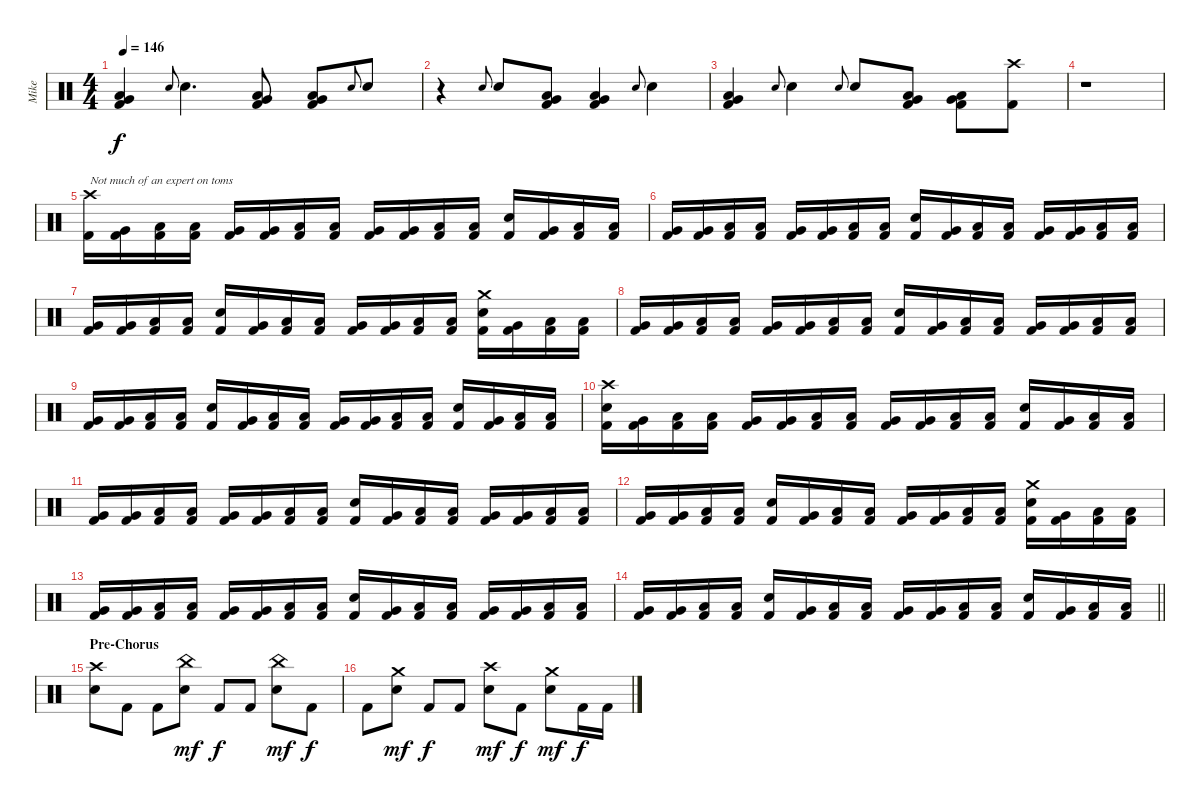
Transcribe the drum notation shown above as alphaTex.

\track ("Mike" "Mike") {instrument percussion}
\staff {score}
\articulation defaults
\ts (4 4)
\tempo 146
\clef neutral
\ks c
("Very Low Tom (hit)" "Low Floor Tom (hit)" "Kick (hit) 2").4{dy f} "Snare (hit) 2".8{gr onbeat} "Snare (hit) 2".4{d} ("Very Low Tom (hit)" "Low Floor Tom (hit)" "Kick (hit) 2").8 ("Very Low Tom (hit)" "Low Floor Tom (hit)" "Kick (hit) 2").8 "Snare (hit) 2".8{gr onbeat} "Snare (hit) 2".8 |
r.4 "Snare (hit) 2".8{gr onbeat} "Snare (hit) 2".8 ("Very Low Tom (hit)" "Low Floor Tom (hit)" "Kick (hit) 2").8 ("Very Low Tom (hit)" "Low Floor Tom (hit)" "Kick (hit) 2").4 "Snare (hit) 2".8{gr onbeat} "Snare (hit) 2".4 |
("Very Low Tom (hit)" "Low Floor Tom (hit)" "Kick (hit) 2").4 "Snare (hit) 2".8{gr onbeat} "Snare (hit) 2".4 "Snare (hit) 2".8{gr onbeat} "Snare (hit) 2".8 ("Very Low Tom (hit)" "Low Floor Tom (hit)" "Kick (hit) 2").8 ("Very Low Tom (hit)" "Low Floor Tom (hit)" "Kick (hit) 2").8 ("Crash high (hit)" "Kick (hit) 2").8 |
r.1 |
("Crash high (hit)" "Kick (hit) 2").16{txt "Not much of an expert on toms"} ("Very Low Tom (hit)" "Kick (hit) 2").16 ("Low Floor Tom (hit)" "Kick (hit) 2").16 ("Low Floor Tom (hit)" "Kick (hit) 2").16 ("Very Low Tom (hit)" "Kick (hit) 2").16 ("Very Low Tom (hit)" "Kick (hit) 2").16 ("Low Floor Tom (hit)" "Kick (hit) 2").16 ("Low Floor Tom (hit)" "Kick (hit) 2").16 ("Very Low Tom (hit)" "Kick (hit) 2").16 ("Very Low Tom (hit)" "Kick (hit) 2").16 ("Low Floor Tom (hit)" "Kick (hit) 2").16 ("Low Floor Tom (hit)" "Kick (hit) 2").16 ("Snare (hit) 2" "Kick (hit) 2").16 ("Very Low Tom (hit)" "Kick (hit) 2").16 ("Low Floor Tom (hit)" "Kick (hit) 2").16 ("Low Floor Tom (hit)" "Kick (hit) 2").16 |
("Very Low Tom (hit)" "Kick (hit) 2").16 ("Very Low Tom (hit)" "Kick (hit) 2").16 ("Low Floor Tom (hit)" "Kick (hit) 2").16 ("Low Floor Tom (hit)" "Kick (hit) 2").16 ("Very Low Tom (hit)" "Kick (hit) 2").16 ("Very Low Tom (hit)" "Kick (hit) 2").16 ("Low Floor Tom (hit)" "Kick (hit) 2").16 ("Low Floor Tom (hit)" "Kick (hit) 2").16 ("Snare (hit) 2" "Kick (hit) 2").16 ("Very Low Tom (hit)" "Kick (hit) 2").16 ("Low Floor Tom (hit)" "Kick (hit) 2").16 ("Low Floor Tom (hit)" "Kick (hit) 2").16 ("Very Low Tom (hit)" "Kick (hit) 2").16 ("Very Low Tom (hit)" "Kick (hit) 2").16 ("Low Floor Tom (hit)" "Kick (hit) 2").16 ("Low Floor Tom (hit)" "Kick (hit) 2").16 |
("Very Low Tom (hit)" "Kick (hit) 2").16 ("Very Low Tom (hit)" "Kick (hit) 2").16 ("Low Floor Tom (hit)" "Kick (hit) 2").16 ("Low Floor Tom (hit)" "Kick (hit) 2").16 ("Snare (hit) 2" "Kick (hit) 2").16 ("Very Low Tom (hit)" "Kick (hit) 2").16 ("Low Floor Tom (hit)" "Kick (hit) 2").16 ("Low Floor Tom (hit)" "Kick (hit) 2").16 ("Very Low Tom (hit)" "Kick (hit) 2").16 ("Very Low Tom (hit)" "Kick (hit) 2").16 ("Low Floor Tom (hit)" "Kick (hit) 2").16 ("Low Floor Tom (hit)" "Kick (hit) 2").16 ("Crash medium (hit)" "Snare (hit) 2" "Kick (hit) 2").16 ("Very Low Tom (hit)" "Kick (hit) 2").16 ("Low Floor Tom (hit)" "Kick (hit) 2").16 ("Low Floor Tom (hit)" "Kick (hit) 2").16 |
("Very Low Tom (hit)" "Kick (hit) 2").16 ("Very Low Tom (hit)" "Kick (hit) 2").16 ("Low Floor Tom (hit)" "Kick (hit) 2").16 ("Low Floor Tom (hit)" "Kick (hit) 2").16 ("Very Low Tom (hit)" "Kick (hit) 2").16 ("Very Low Tom (hit)" "Kick (hit) 2").16 ("Low Floor Tom (hit)" "Kick (hit) 2").16 ("Low Floor Tom (hit)" "Kick (hit) 2").16 ("Snare (hit) 2" "Kick (hit) 2").16 ("Very Low Tom (hit)" "Kick (hit) 2").16 ("Low Floor Tom (hit)" "Kick (hit) 2").16 ("Low Floor Tom (hit)" "Kick (hit) 2").16 ("Very Low Tom (hit)" "Kick (hit) 2").16 ("Very Low Tom (hit)" "Kick (hit) 2").16 ("Low Floor Tom (hit)" "Kick (hit) 2").16 ("Low Floor Tom (hit)" "Kick (hit) 2").16 |
("Very Low Tom (hit)" "Kick (hit) 2").16 ("Very Low Tom (hit)" "Kick (hit) 2").16 ("Low Floor Tom (hit)" "Kick (hit) 2").16 ("Low Floor Tom (hit)" "Kick (hit) 2").16 ("Snare (hit) 2" "Kick (hit) 2").16 ("Very Low Tom (hit)" "Kick (hit) 2").16 ("Low Floor Tom (hit)" "Kick (hit) 2").16 ("Low Floor Tom (hit)" "Kick (hit) 2").16 ("Very Low Tom (hit)" "Kick (hit) 2").16 ("Very Low Tom (hit)" "Kick (hit) 2").16 ("Low Floor Tom (hit)" "Kick (hit) 2").16 ("Low Floor Tom (hit)" "Kick (hit) 2").16 ("Snare (hit) 2" "Kick (hit) 2").16 ("Very Low Tom (hit)" "Kick (hit) 2").16 ("Low Floor Tom (hit)" "Kick (hit) 2").16 ("Low Floor Tom (hit)" "Kick (hit) 2").16 |
("Crash high (hit)" "Snare (hit) 2" "Kick (hit) 2").16 ("Very Low Tom (hit)" "Kick (hit) 2").16 ("Low Floor Tom (hit)" "Kick (hit) 2").16 ("Low Floor Tom (hit)" "Kick (hit) 2").16 ("Very Low Tom (hit)" "Kick (hit) 2").16 ("Very Low Tom (hit)" "Kick (hit) 2").16 ("Low Floor Tom (hit)" "Kick (hit) 2").16 ("Low Floor Tom (hit)" "Kick (hit) 2").16 ("Very Low Tom (hit)" "Kick (hit) 2").16 ("Very Low Tom (hit)" "Kick (hit) 2").16 ("Low Floor Tom (hit)" "Kick (hit) 2").16 ("Low Floor Tom (hit)" "Kick (hit) 2").16 ("Snare (hit) 2" "Kick (hit) 2").16 ("Very Low Tom (hit)" "Kick (hit) 2").16 ("Low Floor Tom (hit)" "Kick (hit) 2").16 ("Low Floor Tom (hit)" "Kick (hit) 2").16 |
("Very Low Tom (hit)" "Kick (hit) 2").16 ("Very Low Tom (hit)" "Kick (hit) 2").16 ("Low Floor Tom (hit)" "Kick (hit) 2").16 ("Low Floor Tom (hit)" "Kick (hit) 2").16 ("Very Low Tom (hit)" "Kick (hit) 2").16 ("Very Low Tom (hit)" "Kick (hit) 2").16 ("Low Floor Tom (hit)" "Kick (hit) 2").16 ("Low Floor Tom (hit)" "Kick (hit) 2").16 ("Snare (hit) 2" "Kick (hit) 2").16 ("Very Low Tom (hit)" "Kick (hit) 2").16 ("Low Floor Tom (hit)" "Kick (hit) 2").16 ("Low Floor Tom (hit)" "Kick (hit) 2").16 ("Very Low Tom (hit)" "Kick (hit) 2").16 ("Very Low Tom (hit)" "Kick (hit) 2").16 ("Low Floor Tom (hit)" "Kick (hit) 2").16 ("Low Floor Tom (hit)" "Kick (hit) 2").16 |
("Very Low Tom (hit)" "Kick (hit) 2").16 ("Very Low Tom (hit)" "Kick (hit) 2").16 ("Low Floor Tom (hit)" "Kick (hit) 2").16 ("Low Floor Tom (hit)" "Kick (hit) 2").16 ("Snare (hit) 2" "Kick (hit) 2").16 ("Very Low Tom (hit)" "Kick (hit) 2").16 ("Low Floor Tom (hit)" "Kick (hit) 2").16 ("Low Floor Tom (hit)" "Kick (hit) 2").16 ("Very Low Tom (hit)" "Kick (hit) 2").16 ("Very Low Tom (hit)" "Kick (hit) 2").16 ("Low Floor Tom (hit)" "Kick (hit) 2").16 ("Low Floor Tom (hit)" "Kick (hit) 2").16 ("Crash medium (hit)" "Snare (hit) 2" "Kick (hit) 2").16 ("Very Low Tom (hit)" "Kick (hit) 2").16 ("Low Floor Tom (hit)" "Kick (hit) 2").16 ("Low Floor Tom (hit)" "Kick (hit) 2").16 |
("Very Low Tom (hit)" "Kick (hit) 2").16 ("Very Low Tom (hit)" "Kick (hit) 2").16 ("Low Floor Tom (hit)" "Kick (hit) 2").16 ("Low Floor Tom (hit)" "Kick (hit) 2").16 ("Very Low Tom (hit)" "Kick (hit) 2").16 ("Very Low Tom (hit)" "Kick (hit) 2").16 ("Low Floor Tom (hit)" "Kick (hit) 2").16 ("Low Floor Tom (hit)" "Kick (hit) 2").16 ("Snare (hit) 2" "Kick (hit) 2").16 ("Very Low Tom (hit)" "Kick (hit) 2").16 ("Low Floor Tom (hit)" "Kick (hit) 2").16 ("Low Floor Tom (hit)" "Kick (hit) 2").16 ("Very Low Tom (hit)" "Kick (hit) 2").16 ("Very Low Tom (hit)" "Kick (hit) 2").16 ("Low Floor Tom (hit)" "Kick (hit) 2").16 ("Low Floor Tom (hit)" "Kick (hit) 2").16 |
\barLineRight lightlight
("Very Low Tom (hit)" "Kick (hit) 2").16 ("Very Low Tom (hit)" "Kick (hit) 2").16 ("Low Floor Tom (hit)" "Kick (hit) 2").16 ("Low Floor Tom (hit)" "Kick (hit) 2").16 ("Snare (hit) 2" "Kick (hit) 2").16 ("Very Low Tom (hit)" "Kick (hit) 2").16 ("Low Floor Tom (hit)" "Kick (hit) 2").16 ("Low Floor Tom (hit)" "Kick (hit) 2").16 ("Very Low Tom (hit)" "Kick (hit) 2").16 ("Very Low Tom (hit)" "Kick (hit) 2").16 ("Low Floor Tom (hit)" "Kick (hit) 2").16 ("Low Floor Tom (hit)" "Kick (hit) 2").16 ("Snare (hit) 2" "Kick (hit) 2").16 ("Very Low Tom (hit)" "Kick (hit) 2").16 ("Low Floor Tom (hit)" "Kick (hit) 2").16 ("Low Floor Tom (hit)" "Kick (hit) 2").16 |
\section ("" "Pre-Chorus")
("Crash high (hit)" "Snare (hit) 2").8 "Kick (hit) 2".8 "Kick (hit) 2".8 ("China (hit)" "Snare (hit) 2").8{dy mf} "Kick (hit) 2".8{dy f} "Kick (hit) 2".8 ("China (hit)" "Snare (hit) 2").8{dy mf} "Kick (hit) 2".8{dy f} |
"Kick (hit) 2".8 ("Crash medium (hit)" "Snare (hit) 2").8{dy mf} "Kick (hit) 2".8{dy f} "Kick (hit) 2".8 ("Crash high (hit)" "Snare (hit) 2").8{dy mf} "Kick (hit) 2".8{dy f} ("Crash medium (hit)" "Snare (hit) 2").8{dy mf} "Kick (hit) 2".16{dy f} "Kick (hit) 2".16
